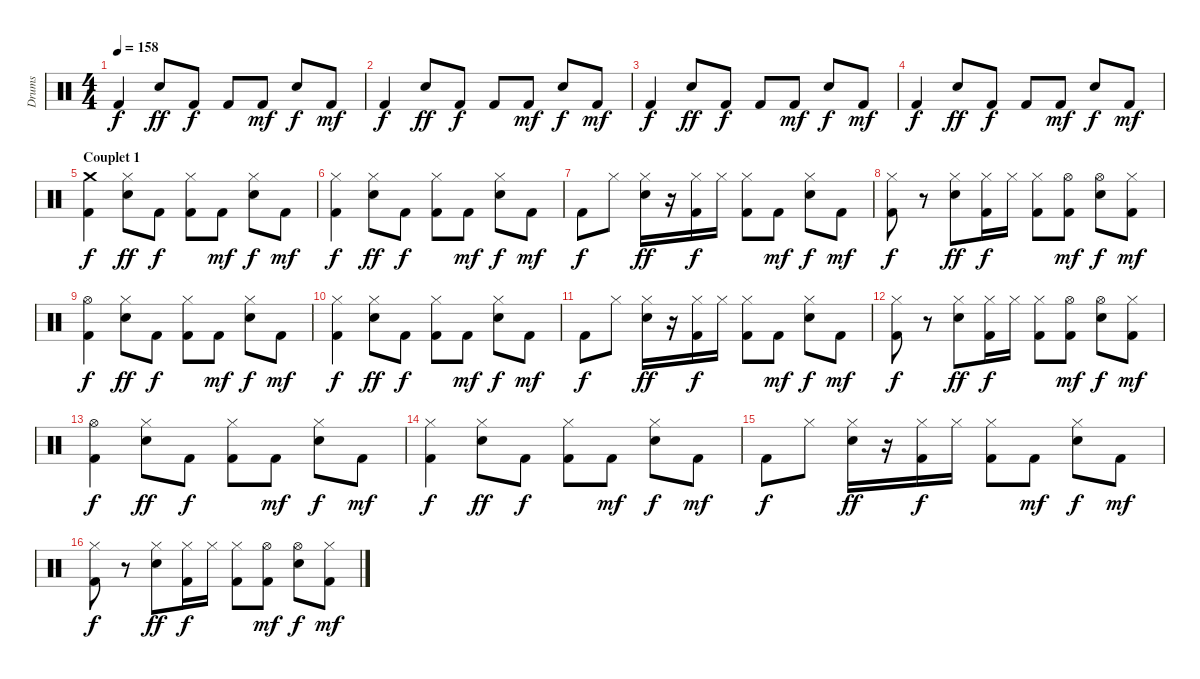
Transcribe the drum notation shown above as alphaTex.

\track ("Drums" "Drums") {instrument percussion}
\staff {score}
\articulation defaults
\ts (4 4)
\tempo 158
\clef neutral
\ks c "Kick (hit) 2".4{dy f} "Snare (hit) 2".8{dy ff} "Kick (hit) 2".8{dy f} "Kick (hit) 2".8 "Kick (hit) 2".8{dy mf} "Snare (hit) 2".8{dy f} "Kick (hit) 2".8{dy mf}
|
"Kick (hit) 2".4{dy f} "Snare (hit) 2".8{dy ff} "Kick (hit) 2".8{dy f} "Kick (hit) 2".8 "Kick (hit) 2".8{dy mf} "Snare (hit) 2".8{dy f} "Kick (hit) 2".8{dy mf} |
"Kick (hit) 2".4{dy f} "Snare (hit) 2".8{dy ff} "Kick (hit) 2".8{dy f} "Kick (hit) 2".8 "Kick (hit) 2".8{dy mf} "Snare (hit) 2".8{dy f} "Kick (hit) 2".8{dy mf} |
"Kick (hit) 2".4{dy f} "Snare (hit) 2".8{dy ff} "Kick (hit) 2".8{dy f} "Kick (hit) 2".8 "Kick (hit) 2".8{dy mf} "Snare (hit) 2".8{dy f} "Kick (hit) 2".8{dy mf} |
\section ("" "Couplet 1")
("Crash medium (hit)" "Kick (hit) 2").4{dy f} ("Hi-Hat (closed)" "Snare (hit) 2").8{dy ff} "Kick (hit) 2".8{dy f} ("Hi-Hat (closed)" "Kick (hit) 2").8 "Kick (hit) 2".8{dy mf} ("Hi-Hat (closed)" "Snare (hit) 2").8{dy f} "Kick (hit) 2".8{dy mf} |
("Hi-Hat (closed)" "Kick (hit) 2").4{dy f} ("Hi-Hat (closed)" "Snare (hit) 2").8{dy ff} "Kick (hit) 2".8{dy f} ("Hi-Hat (closed)" "Kick (hit) 2").8 "Kick (hit) 2".8{dy mf} ("Hi-Hat (closed)" "Snare (hit) 2").8{dy f} "Kick (hit) 2".8{dy mf} |
"Kick (hit) 2".8{dy f} "Hi-Hat (closed)".8 ("Hi-Hat (closed)" "Snare (hit) 2").16{dy ff} r.16 ("Hi-Hat (closed)" "Kick (hit) 2").16{dy f} "Hi-Hat (closed)".16 ("Hi-Hat (closed)" "Kick (hit) 2").8 "Kick (hit) 2".8{dy mf} ("Hi-Hat (closed)" "Snare (hit) 2").8{dy f} "Kick (hit) 2".8{dy mf} |
("Hi-Hat (closed)" "Kick (hit) 2").8{dy f} r.8 ("Hi-Hat (closed)" "Snare (hit) 2").8{dy ff} ("Hi-Hat (closed)" "Kick (hit) 2").16{dy f} "Hi-Hat (closed)".16 ("Hi-Hat (closed)" "Kick (hit) 2").8 ("Hi-Hat (open)" "Kick (hit) 2").8{dy mf} ("Hi-Hat (open)" "Snare (hit) 2").8{dy f} ("Hi-Hat (closed)" "Kick (hit) 2").8{dy mf} |
("Hi-Hat (open)" "Kick (hit) 2").4{dy f} ("Hi-Hat (closed)" "Snare (hit) 2").8{dy ff} "Kick (hit) 2".8{dy f} ("Hi-Hat (closed)" "Kick (hit) 2").8 "Kick (hit) 2".8{dy mf} ("Hi-Hat (closed)" "Snare (hit) 2").8{dy f} "Kick (hit) 2".8{dy mf} |
("Hi-Hat (closed)" "Kick (hit) 2").4{dy f} ("Hi-Hat (closed)" "Snare (hit) 2").8{dy ff} "Kick (hit) 2".8{dy f} ("Hi-Hat (closed)" "Kick (hit) 2").8 "Kick (hit) 2".8{dy mf} ("Hi-Hat (closed)" "Snare (hit) 2").8{dy f} "Kick (hit) 2".8{dy mf} |
"Kick (hit) 2".8{dy f} "Hi-Hat (closed)".8 ("Hi-Hat (closed)" "Snare (hit) 2").16{dy ff} r.16 ("Hi-Hat (closed)" "Kick (hit) 2").16{dy f} "Hi-Hat (closed)".16 ("Hi-Hat (closed)" "Kick (hit) 2").8 "Kick (hit) 2".8{dy mf} ("Hi-Hat (closed)" "Snare (hit) 2").8{dy f} "Kick (hit) 2".8{dy mf} |
("Hi-Hat (closed)" "Kick (hit) 2").8{dy f} r.8 ("Hi-Hat (closed)" "Snare (hit) 2").8{dy ff} ("Hi-Hat (closed)" "Kick (hit) 2").16{dy f} "Hi-Hat (closed)".16 ("Hi-Hat (closed)" "Kick (hit) 2").8 ("Hi-Hat (open)" "Kick (hit) 2").8{dy mf} ("Hi-Hat (open)" "Snare (hit) 2").8{dy f} ("Hi-Hat (closed)" "Kick (hit) 2").8{dy mf} |
("Hi-Hat (open)" "Kick (hit) 2").4{dy f} ("Hi-Hat (closed)" "Snare (hit) 2").8{dy ff} "Kick (hit) 2".8{dy f} ("Hi-Hat (closed)" "Kick (hit) 2").8 "Kick (hit) 2".8{dy mf} ("Hi-Hat (closed)" "Snare (hit) 2").8{dy f} "Kick (hit) 2".8{dy mf} |
("Hi-Hat (closed)" "Kick (hit) 2").4{dy f} ("Hi-Hat (closed)" "Snare (hit) 2").8{dy ff} "Kick (hit) 2".8{dy f} ("Hi-Hat (closed)" "Kick (hit) 2").8 "Kick (hit) 2".8{dy mf} ("Hi-Hat (closed)" "Snare (hit) 2").8{dy f} "Kick (hit) 2".8{dy mf} |
"Kick (hit) 2".8{dy f} "Hi-Hat (closed)".8 ("Hi-Hat (closed)" "Snare (hit) 2").16{dy ff} r.16 ("Hi-Hat (closed)" "Kick (hit) 2").16{dy f} "Hi-Hat (closed)".16 ("Hi-Hat (closed)" "Kick (hit) 2").8 "Kick (hit) 2".8{dy mf} ("Hi-Hat (closed)" "Snare (hit) 2").8{dy f} "Kick (hit) 2".8{dy mf} |
("Hi-Hat (closed)" "Kick (hit) 2").8{dy f} r.8 ("Hi-Hat (closed)" "Snare (hit) 2").8{dy ff} ("Hi-Hat (closed)" "Kick (hit) 2").16{dy f} "Hi-Hat (closed)".16 ("Hi-Hat (closed)" "Kick (hit) 2").8 ("Hi-Hat (open)" "Kick (hit) 2").8{dy mf} ("Hi-Hat (open)" "Snare (hit) 2").8{dy f} ("Hi-Hat (closed)" "Kick (hit) 2").8{dy mf}
